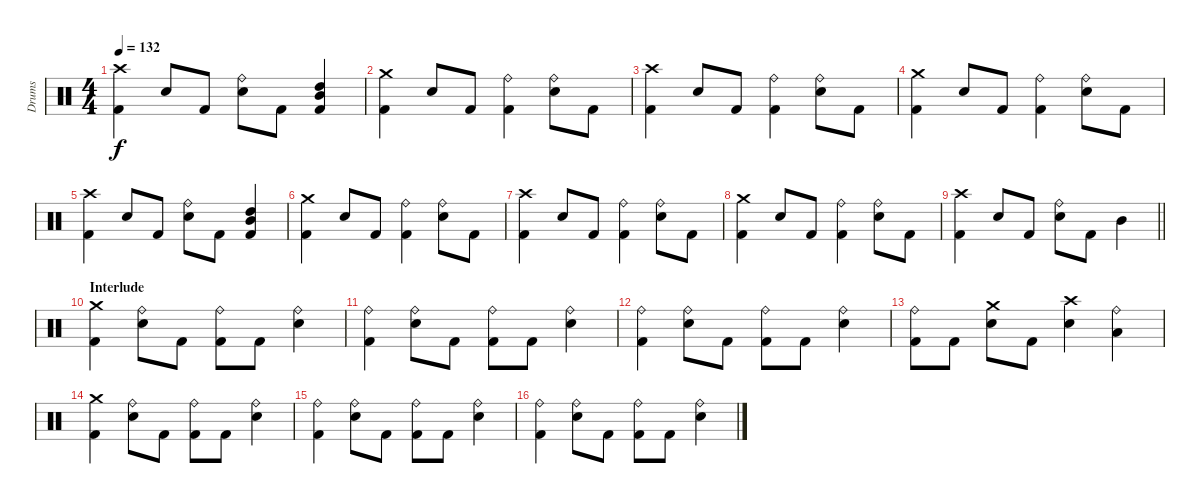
\track ("Drums" "Drums") {instrument percussion}
\staff {score}
\articulation defaults
\ts (4 4)
\tempo 132
\clef neutral
\ks c
("Kick (hit) 2" "Crash high (hit)").4{dy f} "Electric Snare (hit)".8 "Kick (hit) 2".8 ("Electric Snare (hit)" "Ride (bell)").8 "Kick (hit) 2".8 ("Kick (hit) 2" "Mid Tom (hit)" "High Tom (hit)").4 |
("Kick (hit) 2" "Crash medium (hit)").4 "Electric Snare (hit)".8 "Kick (hit) 2".8 ("Kick (hit) 2" "Ride (bell)").4 ("Electric Snare (hit)" "Ride (bell)").8 "Kick (hit) 2".8 |
("Kick (hit) 2" "Crash high (hit)").4 "Electric Snare (hit)".8 "Kick (hit) 2".8 ("Kick (hit) 2" "Ride (bell)").4 ("Electric Snare (hit)" "Ride (bell)").8 "Kick (hit) 2".8 |
("Kick (hit) 2" "Crash medium (hit)").4 "Electric Snare (hit)".8 "Kick (hit) 2".8 ("Kick (hit) 2" "Ride (bell)").4 ("Electric Snare (hit)" "Ride (bell)").8 "Kick (hit) 2".8 |
("Kick (hit) 2" "Crash high (hit)").4 "Electric Snare (hit)".8 "Kick (hit) 2".8 ("Electric Snare (hit)" "Ride (bell)").8 "Kick (hit) 2".8 ("Kick (hit) 2" "Mid Tom (hit)" "High Tom (hit)").4 |
("Kick (hit) 2" "Crash medium (hit)").4 "Electric Snare (hit)".8 "Kick (hit) 2".8 ("Kick (hit) 2" "Ride (bell)").4 ("Electric Snare (hit)" "Ride (bell)").8 "Kick (hit) 2".8 |
("Kick (hit) 2" "Crash high (hit)").4 "Electric Snare (hit)".8 "Kick (hit) 2".8 ("Kick (hit) 2" "Ride (bell)").4 ("Electric Snare (hit)" "Ride (bell)").8 "Kick (hit) 2".8 |
("Kick (hit) 2" "Crash medium (hit)").4 "Electric Snare (hit)".8 "Kick (hit) 2".8 ("Kick (hit) 2" "Ride (bell)").4 ("Electric Snare (hit)" "Ride (bell)").8 "Kick (hit) 2".8 |
\barLineRight lightlight
("Kick (hit) 2" "Crash high (hit)").4 "Electric Snare (hit)".8 "Kick (hit) 2".8 ("Electric Snare (hit)" "Ride (bell)").8 "Kick (hit) 2".8 "Mid Tom (hit)".4 |
\section ("" "Interlude")
("Kick (hit) 2" "Crash medium (hit)").4 ("Electric Snare (hit)" "Ride (bell)").8 "Kick (hit) 2".8 ("Kick (hit) 2" "Ride (bell)").8 "Kick (hit) 2".8 ("Electric Snare (hit)" "Ride (bell)").4 |
("Kick (hit) 2" "Ride (bell)").4 ("Electric Snare (hit)" "Ride (bell)").8 "Kick (hit) 2".8 ("Kick (hit) 2" "Ride (bell)").8 "Kick (hit) 2".8 ("Electric Snare (hit)" "Ride (bell)").4 |
("Kick (hit) 2" "Ride (bell)").4 ("Electric Snare (hit)" "Ride (bell)").8 "Kick (hit) 2".8 ("Kick (hit) 2" "Ride (bell)").8 "Kick (hit) 2".8 ("Electric Snare (hit)" "Ride (bell)").4 |
("Kick (hit) 2" "Ride (bell)").8 "Kick (hit) 2".8 ("Electric Snare (hit)" "Crash medium (hit)").8 "Kick (hit) 2".8 ("Electric Snare (hit)" "Crash high (hit)").4 ("Low Tom (hit)" "Ride (bell)").4 |
("Kick (hit) 2" "Crash medium (hit)").4 ("Electric Snare (hit)" "Ride (bell)").8 "Kick (hit) 2".8 ("Kick (hit) 2" "Ride (bell)").8 "Kick (hit) 2".8 ("Electric Snare (hit)" "Ride (bell)").4 |
("Kick (hit) 2" "Ride (bell)").4 ("Electric Snare (hit)" "Ride (bell)").8 "Kick (hit) 2".8 ("Kick (hit) 2" "Ride (bell)").8 "Kick (hit) 2".8 ("Electric Snare (hit)" "Ride (bell)").4 |
("Kick (hit) 2" "Ride (bell)").4 ("Electric Snare (hit)" "Ride (bell)").8 "Kick (hit) 2".8 ("Kick (hit) 2" "Ride (bell)").8 "Kick (hit) 2".8 ("Electric Snare (hit)" "Ride (bell)").4
